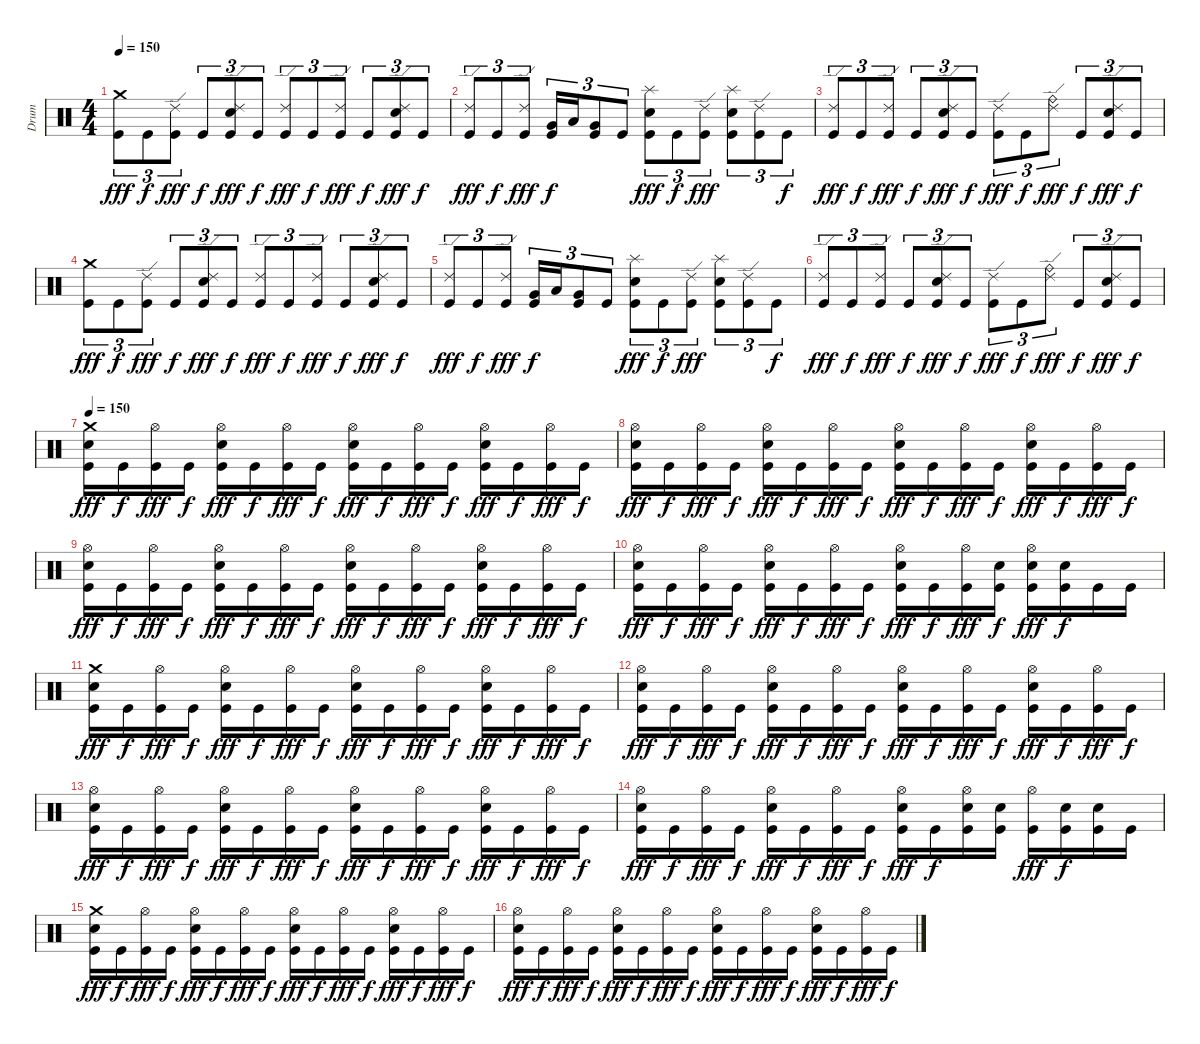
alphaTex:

\track ("Drum" "Drum") {instrument percussion}
\staff {score}
\articulation defaults
\ts (4 4)
\tempo 150
\clef neutral
\ks c
("Crash medium (hit)" "Kick (hit)").8{tu (3 2) dy fff} "Kick (hit)".8{tu (3 2) dy f} ("Ride (edge) 2" "Kick (hit)").8{tu (3 2) dy fff} "Kick (hit)".8{tu (3 2) dy f} ("Ride (edge) 2" "Snare (hit) 2" "Kick (hit)").8{tu (3 2) dy fff} "Kick (hit)".8{tu (3 2) dy f} ("Ride (edge) 2" "Kick (hit)").8{tu (3 2) dy fff} "Kick (hit)".8{tu (3 2) dy f} ("Ride (edge) 2" "Kick (hit)").8{tu (3 2) dy fff} "Kick (hit)".8{tu (3 2) dy f} ("Ride (edge) 2" "Snare (hit) 2" "Kick (hit)").8{tu (3 2) dy fff} "Kick (hit)".8{tu (3 2) dy f} |
("Ride (edge) 2" "Kick (hit)").8{tu (3 2) dy fff} "Kick (hit)".8{tu (3 2) dy f} ("Ride (edge) 2" "Kick (hit)").8{tu (3 2) dy fff} ("Very Low Tom (hit)" "Kick (hit)").16{tu (3 2) dy f} "Low Floor Tom (hit)".16{tu (3 2)} ("Very Low Tom (hit)" "Kick (hit)").8{tu (3 2)} "Kick (hit)".8{tu (3 2)} ("Splash (hit)" "Snare (hit) 2" "Kick (hit)").8{tu (3 2) dy fff} "Kick (hit)".8{tu (3 2) dy f} ("Ride (edge) 2" "Kick (hit)").8{tu (3 2) dy fff} ("Splash (hit)" "Snare (hit) 2" "Kick (hit)").8{tu (3 2)} ("Ride (edge) 2" "Kick (hit)").8{tu (3 2)} "Kick (hit)".8{tu (3 2) dy f} |
("Ride (edge) 2" "Kick (hit)").8{tu (3 2) dy fff} "Kick (hit)".8{tu (3 2) dy f} ("Ride (edge) 2" "Kick (hit)").8{tu (3 2) dy fff} "Kick (hit)".8{tu (3 2) dy f} ("Ride (edge) 2" "Snare (hit) 2" "Kick (hit)").8{tu (3 2) dy fff} "Kick (hit)".8{tu (3 2) dy f} ("Ride (edge) 2" "Kick (hit)").8{tu (3 2) dy fff} "Kick (hit)".8{tu (3 2) dy f} ("Ride (edge) 2" "Ride (bell)").8{tu (3 2) dy fff} "Kick (hit)".8{tu (3 2) dy f} ("Ride (edge) 2" "Snare (hit) 2" "Kick (hit)").8{tu (3 2) dy fff} "Kick (hit)".8{tu (3 2) dy f} |
("Crash medium (hit)" "Kick (hit)").8{tu (3 2) dy fff} "Kick (hit)".8{tu (3 2) dy f} ("Ride (edge) 2" "Kick (hit)").8{tu (3 2) dy fff} "Kick (hit)".8{tu (3 2) dy f} ("Ride (edge) 2" "Snare (hit) 2" "Kick (hit)").8{tu (3 2) dy fff} "Kick (hit)".8{tu (3 2) dy f} ("Ride (edge) 2" "Kick (hit)").8{tu (3 2) dy fff} "Kick (hit)".8{tu (3 2) dy f} ("Ride (edge) 2" "Kick (hit)").8{tu (3 2) dy fff} "Kick (hit)".8{tu (3 2) dy f} ("Ride (edge) 2" "Snare (hit) 2" "Kick (hit)").8{tu (3 2) dy fff} "Kick (hit)".8{tu (3 2) dy f} |
("Ride (edge) 2" "Kick (hit)").8{tu (3 2) dy fff} "Kick (hit)".8{tu (3 2) dy f} ("Ride (edge) 2" "Kick (hit)").8{tu (3 2) dy fff} ("Very Low Tom (hit)" "Kick (hit)").16{tu (3 2) dy f} "Low Floor Tom (hit)".16{tu (3 2)} ("Very Low Tom (hit)" "Kick (hit)").8{tu (3 2)} "Kick (hit)".8{tu (3 2)} ("Splash (hit)" "Snare (hit) 2" "Kick (hit)").8{tu (3 2) dy fff} "Kick (hit)".8{tu (3 2) dy f} ("Ride (edge) 2" "Kick (hit)").8{tu (3 2) dy fff} ("Splash (hit)" "Snare (hit) 2" "Kick (hit)").8{tu (3 2)} ("Ride (edge) 2" "Kick (hit)").8{tu (3 2)} "Kick (hit)".8{tu (3 2) dy f} |
("Ride (edge) 2" "Kick (hit)").8{tu (3 2) dy fff} "Kick (hit)".8{tu (3 2) dy f} ("Ride (edge) 2" "Kick (hit)").8{tu (3 2) dy fff} "Kick (hit)".8{tu (3 2) dy f} ("Ride (edge) 2" "Snare (hit) 2" "Kick (hit)").8{tu (3 2) dy fff} "Kick (hit)".8{tu (3 2) dy f} ("Ride (edge) 2" "Kick (hit)").8{tu (3 2) dy fff} "Kick (hit)".8{tu (3 2) dy f} ("Ride (edge) 2" "Ride (bell)").8{tu (3 2) dy fff} "Kick (hit)".8{tu (3 2) dy f} ("Ride (edge) 2" "Snare (hit) 2" "Kick (hit)").8{tu (3 2) dy fff} "Kick (hit)".8{tu (3 2) dy f} |
\tempo 150
("Crash medium (hit)" "Snare (hit) 2" "Kick (hit)").16{dy fff} "Kick (hit)".16{dy f} ("Hi-Hat (open)" "Kick (hit)").16{dy fff} "Kick (hit)".16{dy f} ("Hi-Hat (open)" "Snare (hit) 2" "Kick (hit)").16{dy fff} "Kick (hit)".16{dy f} ("Hi-Hat (open)" "Kick (hit)").16{dy fff} "Kick (hit)".16{dy f} ("Hi-Hat (open)" "Snare (hit) 2" "Kick (hit)").16{dy fff} "Kick (hit)".16{dy f} ("Hi-Hat (open)" "Kick (hit)").16{dy fff} "Kick (hit)".16{dy f} ("Hi-Hat (open)" "Snare (hit) 2" "Kick (hit)").16{dy fff} "Kick (hit)".16{dy f} ("Hi-Hat (open)" "Kick (hit)").16{dy fff} "Kick (hit)".16{dy f} |
("Hi-Hat (open)" "Snare (hit) 2" "Kick (hit)").16{dy fff} "Kick (hit)".16{dy f} ("Hi-Hat (open)" "Kick (hit)").16{dy fff} "Kick (hit)".16{dy f} ("Hi-Hat (open)" "Snare (hit) 2" "Kick (hit)").16{dy fff} "Kick (hit)".16{dy f} ("Hi-Hat (open)" "Kick (hit)").16{dy fff} "Kick (hit)".16{dy f} ("Hi-Hat (open)" "Snare (hit) 2" "Kick (hit)").16{dy fff} "Kick (hit)".16{dy f} ("Hi-Hat (open)" "Kick (hit)").16{dy fff} "Kick (hit)".16{dy f} ("Hi-Hat (open)" "Snare (hit) 2" "Kick (hit)").16{dy fff} "Kick (hit)".16{dy f} ("Hi-Hat (open)" "Kick (hit)").16{dy fff} "Kick (hit)".16{dy f} |
("Hi-Hat (open)" "Snare (hit) 2" "Kick (hit)").16{dy fff} "Kick (hit)".16{dy f} ("Hi-Hat (open)" "Kick (hit)").16{dy fff} "Kick (hit)".16{dy f} ("Hi-Hat (open)" "Snare (hit) 2" "Kick (hit)").16{dy fff} "Kick (hit)".16{dy f} ("Hi-Hat (open)" "Kick (hit)").16{dy fff} "Kick (hit)".16{dy f} ("Hi-Hat (open)" "Snare (hit) 2" "Kick (hit)").16{dy fff} "Kick (hit)".16{dy f} ("Hi-Hat (open)" "Kick (hit)").16{dy fff} "Kick (hit)".16{dy f} ("Hi-Hat (open)" "Snare (hit) 2" "Kick (hit)").16{dy fff} "Kick (hit)".16{dy f} ("Hi-Hat (open)" "Kick (hit)").16{dy fff} "Kick (hit)".16{dy f} |
("Hi-Hat (open)" "Snare (hit) 2" "Kick (hit)").16{dy fff} "Kick (hit)".16{dy f} ("Hi-Hat (open)" "Kick (hit)").16{dy fff} "Kick (hit)".16{dy f} ("Hi-Hat (open)" "Snare (hit) 2" "Kick (hit)").16{dy fff} "Kick (hit)".16{dy f} ("Hi-Hat (open)" "Kick (hit)").16{dy fff} "Kick (hit)".16{dy f} ("Hi-Hat (open)" "Snare (hit) 2" "Kick (hit)").16{dy fff} "Kick (hit)".16{dy f} ("Hi-Hat (open)" "Kick (hit)").16{dy fff} ("Snare (hit) 2" "Kick (hit)").16{dy f} ("Hi-Hat (open)" "Snare (hit) 2" "Kick (hit)").16{dy fff} ("Snare (hit) 2" "Kick (hit)").16{dy f} "Kick (hit)".16 "Kick (hit)".16 |
("Crash medium (hit)" "Snare (hit) 2" "Kick (hit)").16{dy fff} "Kick (hit)".16{dy f} ("Hi-Hat (open)" "Kick (hit)").16{dy fff} "Kick (hit)".16{dy f} ("Hi-Hat (open)" "Snare (hit) 2" "Kick (hit)").16{dy fff} "Kick (hit)".16{dy f} ("Hi-Hat (open)" "Kick (hit)").16{dy fff} "Kick (hit)".16{dy f} ("Hi-Hat (open)" "Snare (hit) 2" "Kick (hit)").16{dy fff} "Kick (hit)".16{dy f} ("Hi-Hat (open)" "Kick (hit)").16{dy fff} "Kick (hit)".16{dy f} ("Hi-Hat (open)" "Snare (hit) 2" "Kick (hit)").16{dy fff} "Kick (hit)".16{dy f} ("Hi-Hat (open)" "Kick (hit)").16{dy fff} "Kick (hit)".16{dy f} |
("Hi-Hat (open)" "Snare (hit) 2" "Kick (hit)").16{dy fff} "Kick (hit)".16{dy f} ("Hi-Hat (open)" "Kick (hit)").16{dy fff} "Kick (hit)".16{dy f} ("Hi-Hat (open)" "Snare (hit) 2" "Kick (hit)").16{dy fff} "Kick (hit)".16{dy f} ("Hi-Hat (open)" "Kick (hit)").16{dy fff} "Kick (hit)".16{dy f} ("Hi-Hat (open)" "Snare (hit) 2" "Kick (hit)").16{dy fff} "Kick (hit)".16{dy f} ("Hi-Hat (open)" "Kick (hit)").16{dy fff} "Kick (hit)".16{dy f} ("Hi-Hat (open)" "Snare (hit) 2" "Kick (hit)").16{dy fff} "Kick (hit)".16{dy f} ("Hi-Hat (open)" "Kick (hit)").16{dy fff} "Kick (hit)".16{dy f} |
("Hi-Hat (open)" "Snare (hit) 2" "Kick (hit)").16{dy fff} "Kick (hit)".16{dy f} ("Hi-Hat (open)" "Kick (hit)").16{dy fff} "Kick (hit)".16{dy f} ("Hi-Hat (open)" "Snare (hit) 2" "Kick (hit)").16{dy fff} "Kick (hit)".16{dy f} ("Hi-Hat (open)" "Kick (hit)").16{dy fff} "Kick (hit)".16{dy f} ("Hi-Hat (open)" "Snare (hit) 2" "Kick (hit)").16{dy fff} "Kick (hit)".16{dy f} ("Hi-Hat (open)" "Kick (hit)").16{dy fff} "Kick (hit)".16{dy f} ("Hi-Hat (open)" "Snare (hit) 2" "Kick (hit)").16{dy fff} "Kick (hit)".16{dy f} ("Hi-Hat (open)" "Kick (hit)").16{dy fff} "Kick (hit)".16{dy f} |
("Hi-Hat (open)" "Snare (hit) 2" "Kick (hit)").16{dy fff} "Kick (hit)".16{dy f} ("Hi-Hat (open)" "Kick (hit)").16{dy fff} "Kick (hit)".16{dy f} ("Hi-Hat (open)" "Snare (hit) 2" "Kick (hit)").16{dy fff} "Kick (hit)".16{dy f} ("Hi-Hat (open)" "Kick (hit)").16{dy fff} "Kick (hit)".16{dy f} ("Hi-Hat (open)" "Snare (hit) 2" "Kick (hit)").16{dy fff} "Kick (hit)".16{dy f} ("Hi-Hat (open)" "Snare (hit) 2" "Kick (hit)").16 ("Snare (hit) 2" "Kick (hit)").16 ("Hi-Hat (open)" "Kick (hit)").16{dy fff} ("Snare (hit) 2" "Kick (hit)").16{dy f} ("Snare (hit) 2" "Kick (hit)").16 "Kick (hit)".16 |
("Crash medium (hit)" "Snare (hit) 2" "Kick (hit)").16{dy fff} "Kick (hit)".16{dy f} ("Hi-Hat (open)" "Kick (hit)").16{dy fff} "Kick (hit)".16{dy f} ("Hi-Hat (open)" "Snare (hit) 2" "Kick (hit)").16{dy fff} "Kick (hit)".16{dy f} ("Hi-Hat (open)" "Kick (hit)").16{dy fff} "Kick (hit)".16{dy f} ("Hi-Hat (open)" "Snare (hit) 2" "Kick (hit)").16{dy fff} "Kick (hit)".16{dy f} ("Hi-Hat (open)" "Kick (hit)").16{dy fff} "Kick (hit)".16{dy f} ("Hi-Hat (open)" "Snare (hit) 2" "Kick (hit)").16{dy fff} "Kick (hit)".16{dy f} ("Hi-Hat (open)" "Kick (hit)").16{dy fff} "Kick (hit)".16{dy f} |
("Hi-Hat (open)" "Snare (hit) 2" "Kick (hit)").16{dy fff} "Kick (hit)".16{dy f} ("Hi-Hat (open)" "Kick (hit)").16{dy fff} "Kick (hit)".16{dy f} ("Hi-Hat (open)" "Snare (hit) 2" "Kick (hit)").16{dy fff} "Kick (hit)".16{dy f} ("Hi-Hat (open)" "Kick (hit)").16{dy fff} "Kick (hit)".16{dy f} ("Hi-Hat (open)" "Snare (hit) 2" "Kick (hit)").16{dy fff} "Kick (hit)".16{dy f} ("Hi-Hat (open)" "Kick (hit)").16{dy fff} "Kick (hit)".16{dy f} ("Hi-Hat (open)" "Snare (hit) 2" "Kick (hit)").16{dy fff} "Kick (hit)".16{dy f} ("Hi-Hat (open)" "Kick (hit)").16{dy fff} "Kick (hit)".16{dy f}
